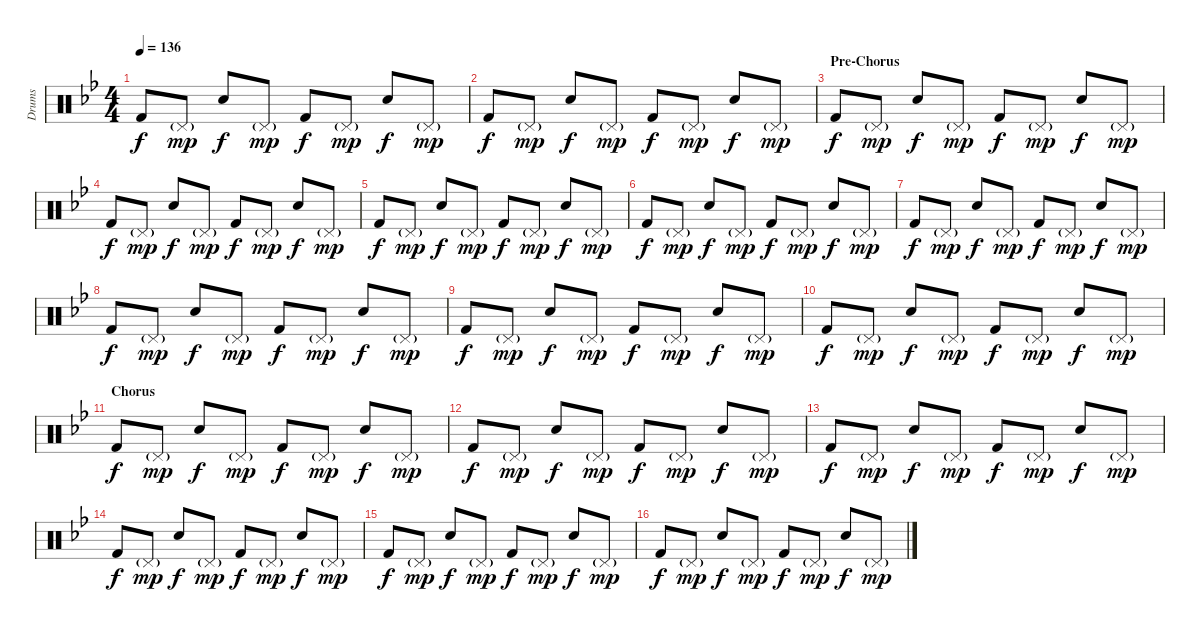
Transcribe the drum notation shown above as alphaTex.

\track ("Drums" "Drums") {instrument percussion}
\staff {score}
\articulation defaults
\ts (4 4)
\tempo 136
\clef neutral
\ks gminor "Kick (hit) 2".8{dy f} "Pedal Hi-Hat (hit)"{g}.8{dy mp} "Hand Clap (hit)".8{dy f} "Pedal Hi-Hat (hit)"{g}.8{dy mp} "Kick (hit) 2".8{dy f} "Pedal Hi-Hat (hit)"{g}.8{dy mp} "Hand Clap (hit)".8{dy f} "Pedal Hi-Hat (hit)"{g}.8{dy mp}
|
"Kick (hit) 2".8{dy f} "Pedal Hi-Hat (hit)"{g}.8{dy mp} "Hand Clap (hit)".8{dy f} "Pedal Hi-Hat (hit)"{g}.8{dy mp} "Kick (hit) 2".8{dy f} "Pedal Hi-Hat (hit)"{g}.8{dy mp} "Hand Clap (hit)".8{dy f} "Pedal Hi-Hat (hit)"{g}.8{dy mp} |
\section ("" "Pre-Chorus")
"Kick (hit) 2".8{dy f} "Pedal Hi-Hat (hit)"{g}.8{dy mp} "Hand Clap (hit)".8{dy f} "Pedal Hi-Hat (hit)"{g}.8{dy mp} "Kick (hit) 2".8{dy f} "Pedal Hi-Hat (hit)"{g}.8{dy mp} "Hand Clap (hit)".8{dy f} "Pedal Hi-Hat (hit)"{g}.8{dy mp} |
"Kick (hit) 2".8{dy f} "Pedal Hi-Hat (hit)"{g}.8{dy mp} "Hand Clap (hit)".8{dy f} "Pedal Hi-Hat (hit)"{g}.8{dy mp} "Kick (hit) 2".8{dy f} "Pedal Hi-Hat (hit)"{g}.8{dy mp} "Hand Clap (hit)".8{dy f} "Pedal Hi-Hat (hit)"{g}.8{dy mp} |
"Kick (hit) 2".8{dy f} "Pedal Hi-Hat (hit)"{g}.8{dy mp} "Hand Clap (hit)".8{dy f} "Pedal Hi-Hat (hit)"{g}.8{dy mp} "Kick (hit) 2".8{dy f} "Pedal Hi-Hat (hit)"{g}.8{dy mp} "Hand Clap (hit)".8{dy f} "Pedal Hi-Hat (hit)"{g}.8{dy mp} |
"Kick (hit) 2".8{dy f} "Pedal Hi-Hat (hit)"{g}.8{dy mp} "Hand Clap (hit)".8{dy f} "Pedal Hi-Hat (hit)"{g}.8{dy mp} "Kick (hit) 2".8{dy f} "Pedal Hi-Hat (hit)"{g}.8{dy mp} "Hand Clap (hit)".8{dy f} "Pedal Hi-Hat (hit)"{g}.8{dy mp} |
"Kick (hit) 2".8{dy f} "Pedal Hi-Hat (hit)"{g}.8{dy mp} "Hand Clap (hit)".8{dy f} "Pedal Hi-Hat (hit)"{g}.8{dy mp} "Kick (hit) 2".8{dy f} "Pedal Hi-Hat (hit)"{g}.8{dy mp} "Hand Clap (hit)".8{dy f} "Pedal Hi-Hat (hit)"{g}.8{dy mp} |
"Kick (hit) 2".8{dy f} "Pedal Hi-Hat (hit)"{g}.8{dy mp} "Hand Clap (hit)".8{dy f} "Pedal Hi-Hat (hit)"{g}.8{dy mp} "Kick (hit) 2".8{dy f} "Pedal Hi-Hat (hit)"{g}.8{dy mp} "Hand Clap (hit)".8{dy f} "Pedal Hi-Hat (hit)"{g}.8{dy mp} |
"Kick (hit) 2".8{dy f} "Pedal Hi-Hat (hit)"{g}.8{dy mp} "Hand Clap (hit)".8{dy f} "Pedal Hi-Hat (hit)"{g}.8{dy mp} "Kick (hit) 2".8{dy f} "Pedal Hi-Hat (hit)"{g}.8{dy mp} "Hand Clap (hit)".8{dy f} "Pedal Hi-Hat (hit)"{g}.8{dy mp} |
"Kick (hit) 2".8{dy f} "Pedal Hi-Hat (hit)"{g}.8{dy mp} "Hand Clap (hit)".8{dy f} "Pedal Hi-Hat (hit)"{g}.8{dy mp} "Kick (hit) 2".8{dy f} "Pedal Hi-Hat (hit)"{g}.8{dy mp} "Hand Clap (hit)".8{dy f} "Pedal Hi-Hat (hit)"{g}.8{dy mp} |
\section ("" "Chorus")
"Kick (hit) 2".8{dy f} "Pedal Hi-Hat (hit)"{g}.8{dy mp} "Hand Clap (hit)".8{dy f} "Pedal Hi-Hat (hit)"{g}.8{dy mp} "Kick (hit) 2".8{dy f} "Pedal Hi-Hat (hit)"{g}.8{dy mp} "Hand Clap (hit)".8{dy f} "Pedal Hi-Hat (hit)"{g}.8{dy mp} |
"Kick (hit) 2".8{dy f} "Pedal Hi-Hat (hit)"{g}.8{dy mp} "Hand Clap (hit)".8{dy f} "Pedal Hi-Hat (hit)"{g}.8{dy mp} "Kick (hit) 2".8{dy f} "Pedal Hi-Hat (hit)"{g}.8{dy mp} "Hand Clap (hit)".8{dy f} "Pedal Hi-Hat (hit)"{g}.8{dy mp} |
"Kick (hit) 2".8{dy f} "Pedal Hi-Hat (hit)"{g}.8{dy mp} "Hand Clap (hit)".8{dy f} "Pedal Hi-Hat (hit)"{g}.8{dy mp} "Kick (hit) 2".8{dy f} "Pedal Hi-Hat (hit)"{g}.8{dy mp} "Hand Clap (hit)".8{dy f} "Pedal Hi-Hat (hit)"{g}.8{dy mp} |
"Kick (hit) 2".8{dy f} "Pedal Hi-Hat (hit)"{g}.8{dy mp} "Hand Clap (hit)".8{dy f} "Pedal Hi-Hat (hit)"{g}.8{dy mp} "Kick (hit) 2".8{dy f} "Pedal Hi-Hat (hit)"{g}.8{dy mp} "Hand Clap (hit)".8{dy f} "Pedal Hi-Hat (hit)"{g}.8{dy mp} |
"Kick (hit) 2".8{dy f} "Pedal Hi-Hat (hit)"{g}.8{dy mp} "Hand Clap (hit)".8{dy f} "Pedal Hi-Hat (hit)"{g}.8{dy mp} "Kick (hit) 2".8{dy f} "Pedal Hi-Hat (hit)"{g}.8{dy mp} "Hand Clap (hit)".8{dy f} "Pedal Hi-Hat (hit)"{g}.8{dy mp} |
"Kick (hit) 2".8{dy f} "Pedal Hi-Hat (hit)"{g}.8{dy mp} "Hand Clap (hit)".8{dy f} "Pedal Hi-Hat (hit)"{g}.8{dy mp} "Kick (hit) 2".8{dy f} "Pedal Hi-Hat (hit)"{g}.8{dy mp} "Hand Clap (hit)".8{dy f} "Pedal Hi-Hat (hit)"{g}.8{dy mp}
